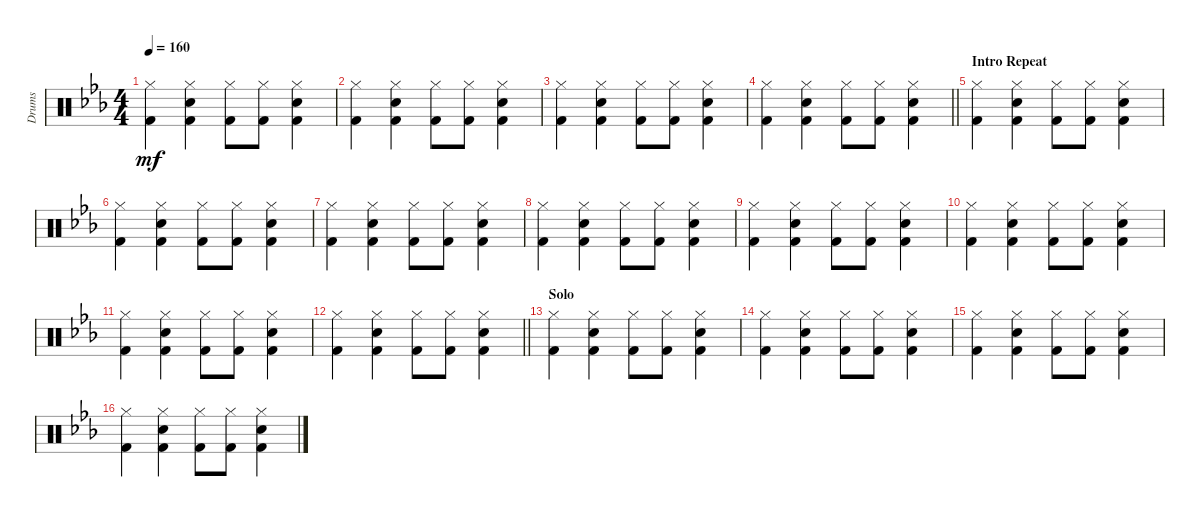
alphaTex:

\track ("Drums" "Drums") {instrument percussion}
\staff {score}
\articulation defaults
\ts (4 4)
\tempo 160
\clef neutral
\ks eb
("Hi-Hat (closed)" "Kick (hit) 2").4{dy mf} ("Hi-Hat (closed)" "Electric Snare (hit)" "Kick (hit) 2").4 ("Hi-Hat (closed)" "Kick (hit) 2").8 ("Hi-Hat (closed)" "Kick (hit) 2").8 ("Hi-Hat (closed)" "Electric Snare (hit)" "Kick (hit) 2").4 |
("Hi-Hat (closed)" "Kick (hit) 2").4 ("Hi-Hat (closed)" "Electric Snare (hit)" "Kick (hit) 2").4 ("Hi-Hat (closed)" "Kick (hit) 2").8 ("Hi-Hat (closed)" "Kick (hit) 2").8 ("Hi-Hat (closed)" "Electric Snare (hit)" "Kick (hit) 2").4 |
("Hi-Hat (closed)" "Kick (hit) 2").4 ("Hi-Hat (closed)" "Electric Snare (hit)" "Kick (hit) 2").4 ("Hi-Hat (closed)" "Kick (hit) 2").8 ("Hi-Hat (closed)" "Kick (hit) 2").8 ("Hi-Hat (closed)" "Electric Snare (hit)" "Kick (hit) 2").4 |
\barLineRight lightlight
("Hi-Hat (closed)" "Kick (hit) 2").4 ("Hi-Hat (closed)" "Electric Snare (hit)" "Kick (hit) 2").4 ("Hi-Hat (closed)" "Kick (hit) 2").8 ("Hi-Hat (closed)" "Kick (hit) 2").8 ("Hi-Hat (closed)" "Electric Snare (hit)" "Kick (hit) 2").4 |
\section ("" "Intro Repeat")
("Hi-Hat (closed)" "Kick (hit) 2").4 ("Hi-Hat (closed)" "Electric Snare (hit)" "Kick (hit) 2").4 ("Hi-Hat (closed)" "Kick (hit) 2").8 ("Hi-Hat (closed)" "Kick (hit) 2").8 ("Hi-Hat (closed)" "Electric Snare (hit)" "Kick (hit) 2").4 |
("Hi-Hat (closed)" "Kick (hit) 2").4 ("Hi-Hat (closed)" "Electric Snare (hit)" "Kick (hit) 2").4 ("Hi-Hat (closed)" "Kick (hit) 2").8 ("Hi-Hat (closed)" "Kick (hit) 2").8 ("Hi-Hat (closed)" "Electric Snare (hit)" "Kick (hit) 2").4 |
("Hi-Hat (closed)" "Kick (hit) 2").4 ("Hi-Hat (closed)" "Electric Snare (hit)" "Kick (hit) 2").4 ("Hi-Hat (closed)" "Kick (hit) 2").8 ("Hi-Hat (closed)" "Kick (hit) 2").8 ("Hi-Hat (closed)" "Electric Snare (hit)" "Kick (hit) 2").4 |
("Hi-Hat (closed)" "Kick (hit) 2").4 ("Hi-Hat (closed)" "Electric Snare (hit)" "Kick (hit) 2").4 ("Hi-Hat (closed)" "Kick (hit) 2").8 ("Hi-Hat (closed)" "Kick (hit) 2").8 ("Hi-Hat (closed)" "Electric Snare (hit)" "Kick (hit) 2").4 |
("Hi-Hat (closed)" "Kick (hit) 2").4 ("Hi-Hat (closed)" "Electric Snare (hit)" "Kick (hit) 2").4 ("Hi-Hat (closed)" "Kick (hit) 2").8 ("Hi-Hat (closed)" "Kick (hit) 2").8 ("Hi-Hat (closed)" "Electric Snare (hit)" "Kick (hit) 2").4 |
("Hi-Hat (closed)" "Kick (hit) 2").4 ("Hi-Hat (closed)" "Electric Snare (hit)" "Kick (hit) 2").4 ("Hi-Hat (closed)" "Kick (hit) 2").8 ("Hi-Hat (closed)" "Kick (hit) 2").8 ("Hi-Hat (closed)" "Electric Snare (hit)" "Kick (hit) 2").4 |
("Hi-Hat (closed)" "Kick (hit) 2").4 ("Hi-Hat (closed)" "Electric Snare (hit)" "Kick (hit) 2").4 ("Hi-Hat (closed)" "Kick (hit) 2").8 ("Hi-Hat (closed)" "Kick (hit) 2").8 ("Hi-Hat (closed)" "Electric Snare (hit)" "Kick (hit) 2").4 |
\barLineRight lightlight
("Hi-Hat (closed)" "Kick (hit) 2").4 ("Hi-Hat (closed)" "Electric Snare (hit)" "Kick (hit) 2").4 ("Hi-Hat (closed)" "Kick (hit) 2").8 ("Hi-Hat (closed)" "Kick (hit) 2").8 ("Hi-Hat (closed)" "Electric Snare (hit)" "Kick (hit) 2").4 |
\section ("" "Solo")
("Hi-Hat (closed)" "Kick (hit) 2").4 ("Hi-Hat (closed)" "Electric Snare (hit)" "Kick (hit) 2").4 ("Hi-Hat (closed)" "Kick (hit) 2").8 ("Hi-Hat (closed)" "Kick (hit) 2").8 ("Hi-Hat (closed)" "Electric Snare (hit)" "Kick (hit) 2").4 |
("Hi-Hat (closed)" "Kick (hit) 2").4 ("Hi-Hat (closed)" "Electric Snare (hit)" "Kick (hit) 2").4 ("Hi-Hat (closed)" "Kick (hit) 2").8 ("Hi-Hat (closed)" "Kick (hit) 2").8 ("Hi-Hat (closed)" "Electric Snare (hit)" "Kick (hit) 2").4 |
("Hi-Hat (closed)" "Kick (hit) 2").4 ("Hi-Hat (closed)" "Electric Snare (hit)" "Kick (hit) 2").4 ("Hi-Hat (closed)" "Kick (hit) 2").8 ("Hi-Hat (closed)" "Kick (hit) 2").8 ("Hi-Hat (closed)" "Electric Snare (hit)" "Kick (hit) 2").4 |
("Hi-Hat (closed)" "Kick (hit) 2").4 ("Hi-Hat (closed)" "Electric Snare (hit)" "Kick (hit) 2").4 ("Hi-Hat (closed)" "Kick (hit) 2").8 ("Hi-Hat (closed)" "Kick (hit) 2").8 ("Hi-Hat (closed)" "Electric Snare (hit)" "Kick (hit) 2").4
